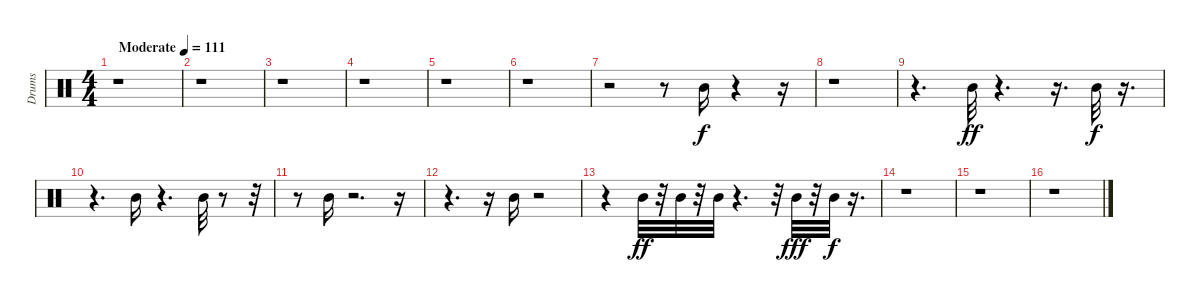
\track ("Drums" "Drums") {instrument percussion}
\staff {score}
\articulation defaults
\ts (4 4)
\tempo (111 "Moderate")
\clef neutral
\ks c
r.1{dy f} |
r.1 |
r.1 |
r.1 |
r.1 |
r.1 |
r.2 r.8 "Mid Tom (hit)".16 r.4 r.16 |
r.1 |
r.4{d} "Mid Tom (hit)".32{dy ff} r.4{d} r.16{d} "Mid Tom (hit)".32{dy f} r.16{d} |
r.4{d} "Mid Tom (hit)".16 r.4{d} "Mid Tom (hit)".32 r.8 r.32 |
r.8 "Mid Tom (hit)".16 r.2{d} r.16 |
r.4{d} r.16 "Mid Tom (hit)".16 r.2 |
r.4 "Mid Tom (hit)".32{dy ff} r.32 "Mid Tom (hit)".32 r.32 "Mid Tom (hit)".32 r.4{d} r.32 "Mid Tom (hit)".32{dy fff} r.32 "Mid Tom (hit)".32{dy f} r.16{d} |
r.1 |
r.1 |
r.1
